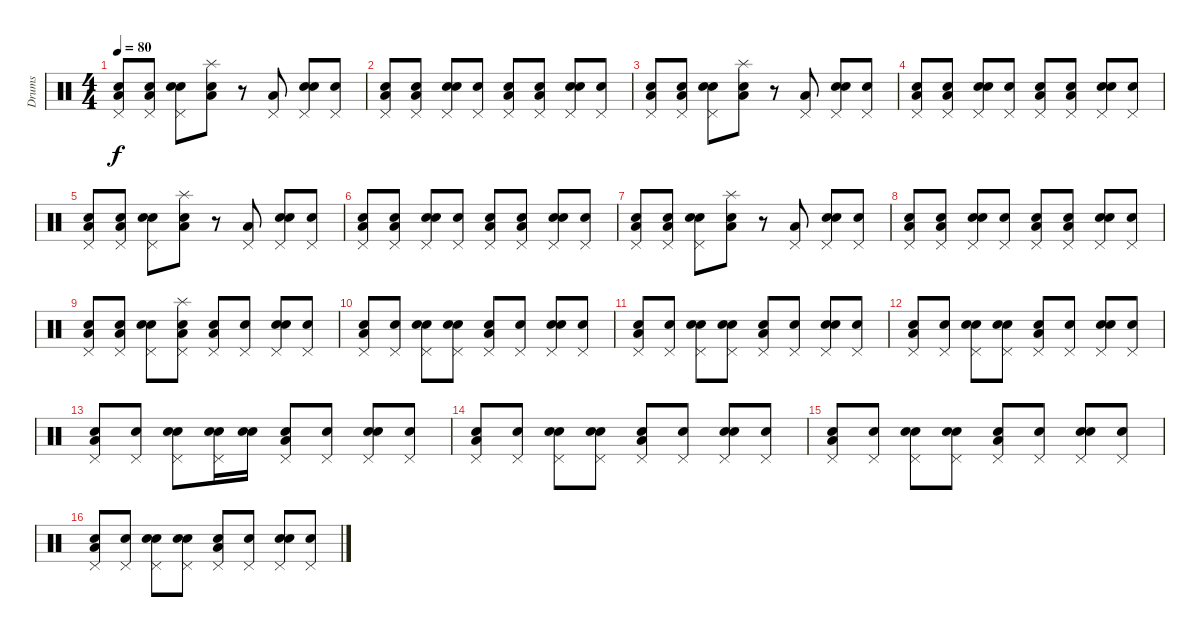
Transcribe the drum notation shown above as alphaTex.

\track ("Drums" "Drums") {instrument percussion}
\staff {score}
\articulation defaults
\ts (4 4)
\tempo 80
\clef neutral
\ks c
("Snare (hit)" "Low Floor Tom (hit)" "Pedal Hi-Hat (hit)").8{dy f} ("Snare (hit)" "Low Floor Tom (hit)" "Pedal Hi-Hat (hit)").8 ("Snare (hit)" "Electric Snare (hit)" "Pedal Hi-Hat (hit)").8 ("Snare (hit)" "Low Floor Tom (hit)" "Splash (hit)").8 r.8 ("Low Floor Tom (hit)" "Pedal Hi-Hat (hit)").8 ("Snare (hit)" "Electric Snare (hit)" "Pedal Hi-Hat (hit)").8 ("Snare (hit)" "Pedal Hi-Hat (hit)").8 |
("Snare (hit)" "Low Floor Tom (hit)" "Pedal Hi-Hat (hit)").8 ("Snare (hit)" "Low Floor Tom (hit)" "Pedal Hi-Hat (hit)").8 ("Snare (hit)" "Electric Snare (hit)" "Pedal Hi-Hat (hit)").8 ("Snare (hit)" "Pedal Hi-Hat (hit)").8 ("Snare (hit)" "Low Floor Tom (hit)" "Pedal Hi-Hat (hit)").8 ("Snare (hit)" "Low Floor Tom (hit)" "Pedal Hi-Hat (hit)").8 ("Snare (hit)" "Electric Snare (hit)" "Pedal Hi-Hat (hit)").8 ("Snare (hit)" "Pedal Hi-Hat (hit)").8 |
("Snare (hit)" "Low Floor Tom (hit)" "Pedal Hi-Hat (hit)").8 ("Snare (hit)" "Low Floor Tom (hit)" "Pedal Hi-Hat (hit)").8 ("Snare (hit)" "Electric Snare (hit)" "Pedal Hi-Hat (hit)").8 ("Snare (hit)" "Low Floor Tom (hit)" "Splash (hit)").8 r.8 ("Low Floor Tom (hit)" "Pedal Hi-Hat (hit)").8 ("Snare (hit)" "Electric Snare (hit)" "Pedal Hi-Hat (hit)").8 ("Snare (hit)" "Pedal Hi-Hat (hit)").8 |
("Snare (hit)" "Low Floor Tom (hit)" "Pedal Hi-Hat (hit)").8 ("Snare (hit)" "Low Floor Tom (hit)" "Pedal Hi-Hat (hit)").8 ("Snare (hit)" "Electric Snare (hit)" "Pedal Hi-Hat (hit)").8 ("Snare (hit)" "Pedal Hi-Hat (hit)").8 ("Snare (hit)" "Low Floor Tom (hit)" "Pedal Hi-Hat (hit)").8 ("Snare (hit)" "Low Floor Tom (hit)" "Pedal Hi-Hat (hit)").8 ("Snare (hit)" "Electric Snare (hit)" "Pedal Hi-Hat (hit)").8 ("Snare (hit)" "Pedal Hi-Hat (hit)").8 |
("Snare (hit)" "Low Floor Tom (hit)" "Pedal Hi-Hat (hit)").8 ("Snare (hit)" "Low Floor Tom (hit)" "Pedal Hi-Hat (hit)").8 ("Snare (hit)" "Electric Snare (hit)" "Pedal Hi-Hat (hit)").8 ("Snare (hit)" "Low Floor Tom (hit)" "Splash (hit)").8 r.8 ("Low Floor Tom (hit)" "Pedal Hi-Hat (hit)").8 ("Snare (hit)" "Electric Snare (hit)" "Pedal Hi-Hat (hit)").8 ("Snare (hit)" "Pedal Hi-Hat (hit)").8 |
("Snare (hit)" "Low Floor Tom (hit)" "Pedal Hi-Hat (hit)").8 ("Snare (hit)" "Low Floor Tom (hit)" "Pedal Hi-Hat (hit)").8 ("Snare (hit)" "Electric Snare (hit)" "Pedal Hi-Hat (hit)").8 ("Snare (hit)" "Pedal Hi-Hat (hit)").8 ("Snare (hit)" "Low Floor Tom (hit)" "Pedal Hi-Hat (hit)").8 ("Snare (hit)" "Low Floor Tom (hit)" "Pedal Hi-Hat (hit)").8 ("Snare (hit)" "Electric Snare (hit)" "Pedal Hi-Hat (hit)").8 ("Snare (hit)" "Pedal Hi-Hat (hit)").8 |
("Snare (hit)" "Low Floor Tom (hit)" "Pedal Hi-Hat (hit)").8 ("Snare (hit)" "Low Floor Tom (hit)" "Pedal Hi-Hat (hit)").8 ("Snare (hit)" "Electric Snare (hit)" "Pedal Hi-Hat (hit)").8 ("Snare (hit)" "Low Floor Tom (hit)" "Splash (hit)").8 r.8 ("Low Floor Tom (hit)" "Pedal Hi-Hat (hit)").8 ("Snare (hit)" "Electric Snare (hit)" "Pedal Hi-Hat (hit)").8 ("Snare (hit)" "Pedal Hi-Hat (hit)").8 |
("Snare (hit)" "Low Floor Tom (hit)" "Pedal Hi-Hat (hit)").8 ("Snare (hit)" "Low Floor Tom (hit)" "Pedal Hi-Hat (hit)").8 ("Snare (hit)" "Electric Snare (hit)" "Pedal Hi-Hat (hit)").8 ("Snare (hit)" "Pedal Hi-Hat (hit)").8 ("Snare (hit)" "Low Floor Tom (hit)" "Pedal Hi-Hat (hit)").8 ("Snare (hit)" "Low Floor Tom (hit)" "Pedal Hi-Hat (hit)").8 ("Snare (hit)" "Electric Snare (hit)" "Pedal Hi-Hat (hit)").8 ("Snare (hit)" "Pedal Hi-Hat (hit)").8 |
("Snare (hit)" "Low Floor Tom (hit)" "Pedal Hi-Hat (hit)").8 ("Snare (hit)" "Low Floor Tom (hit)" "Pedal Hi-Hat (hit)").8 ("Snare (hit)" "Electric Snare (hit)" "Pedal Hi-Hat (hit)").8 ("Snare (hit)" "Low Floor Tom (hit)" "Pedal Hi-Hat (hit)" "Splash (hit)").8 ("Snare (hit)" "Low Floor Tom (hit)" "Pedal Hi-Hat (hit)").8 ("Snare (hit)" "Pedal Hi-Hat (hit)").8 ("Snare (hit)" "Electric Snare (hit)" "Pedal Hi-Hat (hit)").8 ("Snare (hit)" "Pedal Hi-Hat (hit)").8 |
("Snare (hit)" "Low Floor Tom (hit)" "Pedal Hi-Hat (hit)").8 ("Snare (hit)" "Pedal Hi-Hat (hit)").8 ("Snare (hit)" "Electric Snare (hit)" "Pedal Hi-Hat (hit)").8 ("Snare (hit)" "Electric Snare (hit)" "Pedal Hi-Hat (hit)").8 ("Snare (hit)" "Low Floor Tom (hit)" "Pedal Hi-Hat (hit)").8 ("Snare (hit)" "Pedal Hi-Hat (hit)").8 ("Snare (hit)" "Electric Snare (hit)" "Pedal Hi-Hat (hit)").8 ("Snare (hit)" "Pedal Hi-Hat (hit)").8 |
("Snare (hit)" "Low Floor Tom (hit)" "Pedal Hi-Hat (hit)").8 ("Snare (hit)" "Pedal Hi-Hat (hit)").8 ("Snare (hit)" "Electric Snare (hit)" "Pedal Hi-Hat (hit)").8 ("Snare (hit)" "Electric Snare (hit)" "Pedal Hi-Hat (hit)").8 ("Snare (hit)" "Low Floor Tom (hit)" "Pedal Hi-Hat (hit)").8 ("Snare (hit)" "Pedal Hi-Hat (hit)").8 ("Snare (hit)" "Electric Snare (hit)" "Pedal Hi-Hat (hit)").8 ("Snare (hit)" "Pedal Hi-Hat (hit)").8 |
("Snare (hit)" "Low Floor Tom (hit)" "Pedal Hi-Hat (hit)").8 ("Snare (hit)" "Pedal Hi-Hat (hit)").8 ("Snare (hit)" "Electric Snare (hit)" "Pedal Hi-Hat (hit)").8 ("Snare (hit)" "Electric Snare (hit)" "Pedal Hi-Hat (hit)").8 ("Snare (hit)" "Low Floor Tom (hit)" "Pedal Hi-Hat (hit)").8 ("Snare (hit)" "Pedal Hi-Hat (hit)").8 ("Snare (hit)" "Electric Snare (hit)" "Pedal Hi-Hat (hit)").8 ("Snare (hit)" "Pedal Hi-Hat (hit)").8 |
("Snare (hit)" "Low Floor Tom (hit)" "Pedal Hi-Hat (hit)").8 ("Snare (hit)" "Pedal Hi-Hat (hit)").8 ("Snare (hit)" "Electric Snare (hit)" "Pedal Hi-Hat (hit)").8 ("Snare (hit)" "Electric Snare (hit)" "Pedal Hi-Hat (hit)").16 ("Snare (hit)" "Electric Snare (hit)").16 ("Snare (hit)" "Low Floor Tom (hit)" "Pedal Hi-Hat (hit)").8 ("Snare (hit)" "Pedal Hi-Hat (hit)").8 ("Snare (hit)" "Electric Snare (hit)" "Pedal Hi-Hat (hit)").8 ("Snare (hit)" "Pedal Hi-Hat (hit)").8 |
("Snare (hit)" "Low Floor Tom (hit)" "Pedal Hi-Hat (hit)").8 ("Snare (hit)" "Pedal Hi-Hat (hit)").8 ("Snare (hit)" "Electric Snare (hit)" "Pedal Hi-Hat (hit)").8 ("Snare (hit)" "Electric Snare (hit)" "Pedal Hi-Hat (hit)").8 ("Snare (hit)" "Low Floor Tom (hit)" "Pedal Hi-Hat (hit)").8 ("Snare (hit)" "Pedal Hi-Hat (hit)").8 ("Snare (hit)" "Electric Snare (hit)" "Pedal Hi-Hat (hit)").8 ("Snare (hit)" "Pedal Hi-Hat (hit)").8 |
("Snare (hit)" "Low Floor Tom (hit)" "Pedal Hi-Hat (hit)").8 ("Snare (hit)" "Pedal Hi-Hat (hit)").8 ("Snare (hit)" "Electric Snare (hit)" "Pedal Hi-Hat (hit)").8 ("Snare (hit)" "Electric Snare (hit)" "Pedal Hi-Hat (hit)").8 ("Snare (hit)" "Low Floor Tom (hit)" "Pedal Hi-Hat (hit)").8 ("Snare (hit)" "Pedal Hi-Hat (hit)").8 ("Snare (hit)" "Electric Snare (hit)" "Pedal Hi-Hat (hit)").8 ("Snare (hit)" "Pedal Hi-Hat (hit)").8 |
("Snare (hit)" "Low Floor Tom (hit)" "Pedal Hi-Hat (hit)").8 ("Snare (hit)" "Pedal Hi-Hat (hit)").8 ("Snare (hit)" "Electric Snare (hit)" "Pedal Hi-Hat (hit)").8 ("Snare (hit)" "Electric Snare (hit)" "Pedal Hi-Hat (hit)").8 ("Snare (hit)" "Low Floor Tom (hit)" "Pedal Hi-Hat (hit)").8 ("Snare (hit)" "Pedal Hi-Hat (hit)").8 ("Snare (hit)" "Electric Snare (hit)" "Pedal Hi-Hat (hit)").8 ("Snare (hit)" "Pedal Hi-Hat (hit)").8
